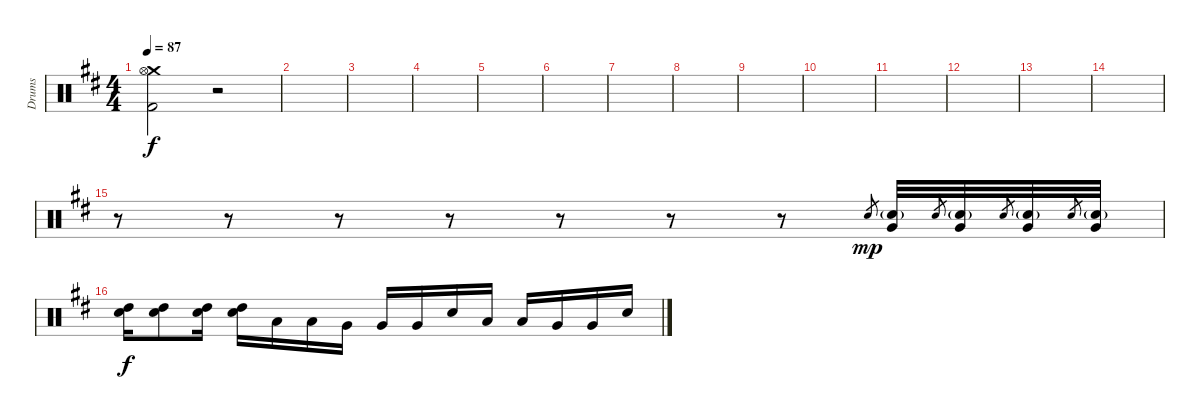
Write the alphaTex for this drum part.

\track ("Drums" "Drums") {instrument percussion}
\staff {score}
\articulation defaults
\ts (4 4)
\tempo 87
\clef neutral
\ks d
("Crash medium (hit)" "Hi-Hat (open)" "Kick (hit) 2").2{dy f} r.2 |
|
|
|
|
|
|
|
|
|
|
|
|
|
r.8 r.8 r.8 r.8 r.8 r.8 r.8 "Electric Snare (hit)".8{gr dy mp} ("Electric Snare (hit)"{g} "Very Low Tom (hit)").32 "Electric Snare (hit)".8{gr} ("Electric Snare (hit)"{g} "Very Low Tom (hit)").32 "Electric Snare (hit)".8{gr} ("Electric Snare (hit)"{g} "Very Low Tom (hit)").32 "Electric Snare (hit)".8{gr} ("Electric Snare (hit)"{g} "Very Low Tom (hit)").32 |
("Electric Snare (hit)" "High Tom (hit)").16{dy f} ("Electric Snare (hit)" "High Tom (hit)").8 ("Electric Snare (hit)" "High Tom (hit)").16 ("Electric Snare (hit)" "High Tom (hit)").16 "Low Tom (hit)".16 "Low Tom (hit)".16 "Very Low Tom (hit)".16 "Very Low Tom (hit)".16 "Very Low Tom (hit)".16 "Electric Snare (hit)".16 "Low Tom (hit)".16 "Low Tom (hit)".16 "Very Low Tom (hit)".16 "Very Low Tom (hit)".16 "Electric Snare (hit)".16
